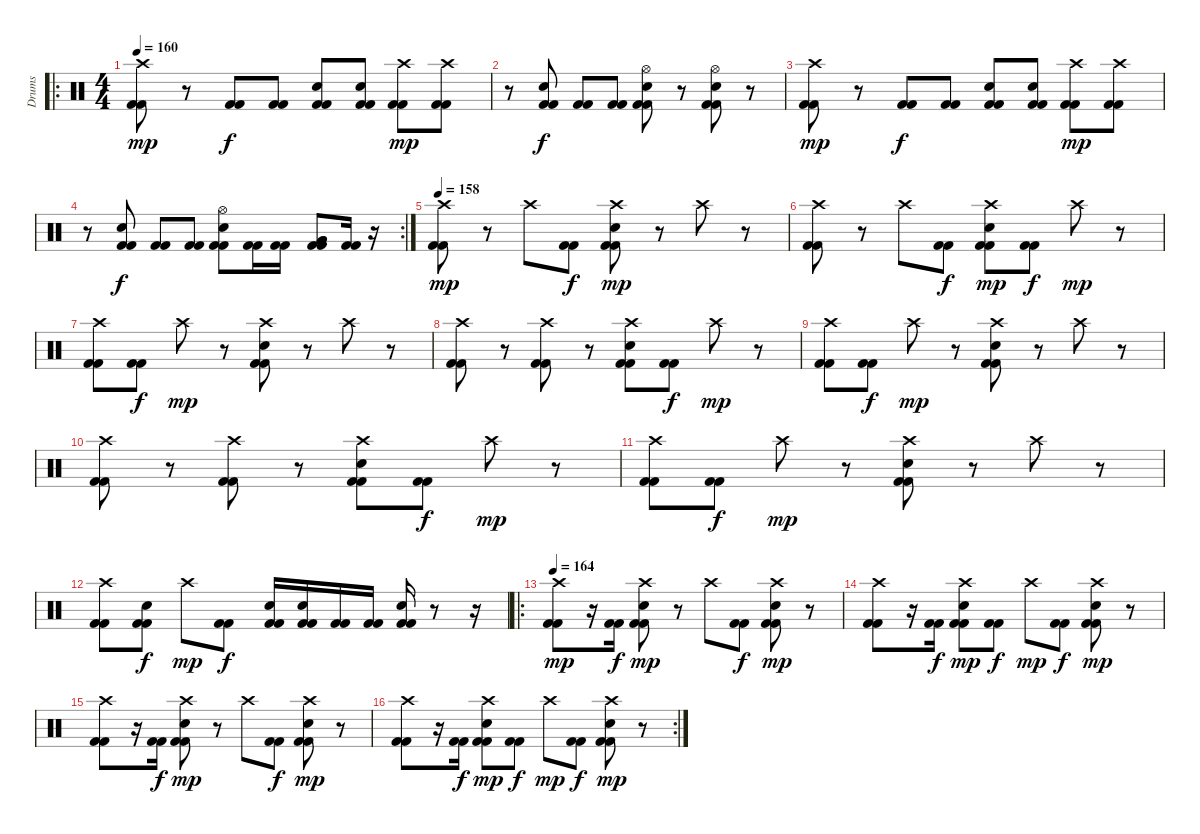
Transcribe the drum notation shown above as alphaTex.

\track ("Drums" "Drums") {instrument percussion}
\staff {score}
\articulation defaults
\ro
\ts (4 4)
\tempo 160
\clef neutral
\ks c
("Crash high (hit)" "Kick (hit) 2" "Kick (hit) 2").8{dy mp} r.8 ("Kick (hit) 2" "Kick (hit) 2").8{dy f} ("Kick (hit) 2" "Kick (hit) 2").8 ("Snare (hit) 2" "Kick (hit) 2" "Kick (hit) 2").8 ("Snare (hit) 2" "Kick (hit) 2" "Kick (hit) 2").8 ("Crash high (hit)" "Kick (hit) 2" "Kick (hit) 2").8{dy mp} ("Crash high (hit)" "Kick (hit) 2" "Kick (hit) 2").8 |
r.8 ("Snare (hit) 2" "Kick (hit) 2" "Kick (hit) 2").8{dy f} ("Kick (hit) 2" "Kick (hit) 2").8 ("Kick (hit) 2" "Kick (hit) 2").8 ("Hi-Hat (open)" "Snare (hit) 2" "Kick (hit) 2" "Kick (hit) 2").8 r.8 ("Hi-Hat (open)" "Snare (hit) 2" "Kick (hit) 2" "Kick (hit) 2").8 r.8 |
("Crash high (hit)" "Kick (hit) 2" "Kick (hit) 2").8{dy mp} r.8 ("Kick (hit) 2" "Kick (hit) 2").8{dy f} ("Kick (hit) 2" "Kick (hit) 2").8 ("Snare (hit) 2" "Kick (hit) 2" "Kick (hit) 2").8 ("Snare (hit) 2" "Kick (hit) 2" "Kick (hit) 2").8 ("Crash high (hit)" "Kick (hit) 2" "Kick (hit) 2").8{dy mp} ("Crash high (hit)" "Kick (hit) 2" "Kick (hit) 2").8 |
\rc 2
r.8 ("Snare (hit) 2" "Kick (hit) 2" "Kick (hit) 2").8{dy f} ("Kick (hit) 2" "Kick (hit) 2").8 ("Kick (hit) 2" "Kick (hit) 2").8 ("Hi-Hat (open)" "Snare (hit) 2" "Kick (hit) 2" "Kick (hit) 2").8 ("Kick (hit) 2" "Kick (hit) 2").16 ("Kick (hit) 2" "Kick (hit) 2").16 ("Very Low Tom (hit)" "Very Low Tom (hit)" "Kick (hit) 2" "Kick (hit) 2").8 ("Kick (hit) 2" "Kick (hit) 2").16 r.16 |
\tempo 158
("Crash high (hit)" "Kick (hit) 2" "Kick (hit) 2").8{dy mp} r.8 "Crash high (hit)".8 ("Kick (hit) 2" "Kick (hit) 2").8{dy f} ("Crash high (hit)" "Snare (hit) 2" "Kick (hit) 2" "Kick (hit) 2").8{dy mp} r.8 "Crash high (hit)".8 r.8 |
("Crash high (hit)" "Kick (hit) 2" "Kick (hit) 2").8 r.8 "Crash high (hit)".8 ("Kick (hit) 2" "Kick (hit) 2").8{dy f} ("Crash high (hit)" "Snare (hit) 2" "Kick (hit) 2" "Kick (hit) 2").8{dy mp} ("Kick (hit) 2" "Kick (hit) 2").8{dy f} "Crash high (hit)".8{dy mp} r.8 |
("Crash high (hit)" "Kick (hit) 2" "Kick (hit) 2").8 ("Kick (hit) 2" "Kick (hit) 2").8{dy f} "Crash high (hit)".8{dy mp} r.8 ("Crash high (hit)" "Snare (hit) 2" "Kick (hit) 2" "Kick (hit) 2").8 r.8 "Crash high (hit)".8 r.8 |
("Crash high (hit)" "Kick (hit) 2" "Kick (hit) 2").8 r.8 ("Crash high (hit)" "Kick (hit) 2" "Kick (hit) 2").8 r.8 ("Crash high (hit)" "Snare (hit) 2" "Kick (hit) 2" "Kick (hit) 2").8 ("Kick (hit) 2" "Kick (hit) 2").8{dy f} "Crash high (hit)".8{dy mp} r.8 |
("Crash high (hit)" "Kick (hit) 2" "Kick (hit) 2").8 ("Kick (hit) 2" "Kick (hit) 2").8{dy f} "Crash high (hit)".8{dy mp} r.8 ("Crash high (hit)" "Snare (hit) 2" "Kick (hit) 2" "Kick (hit) 2").8 r.8 "Crash high (hit)".8 r.8 |
("Crash high (hit)" "Kick (hit) 2" "Kick (hit) 2").8 r.8 ("Crash high (hit)" "Kick (hit) 2" "Kick (hit) 2").8 r.8 ("Crash high (hit)" "Snare (hit) 2" "Kick (hit) 2" "Kick (hit) 2").8 ("Kick (hit) 2" "Kick (hit) 2").8{dy f} "Crash high (hit)".8{dy mp} r.8 |
("Crash high (hit)" "Kick (hit) 2" "Kick (hit) 2").8 ("Kick (hit) 2" "Kick (hit) 2").8{dy f} "Crash high (hit)".8{dy mp} r.8 ("Crash high (hit)" "Snare (hit) 2" "Kick (hit) 2" "Kick (hit) 2").8 r.8 "Crash high (hit)".8 r.8 |
("Crash high (hit)" "Kick (hit) 2" "Kick (hit) 2").8 ("Snare (hit) 2" "Kick (hit) 2" "Kick (hit) 2").8{dy f} "Crash high (hit)".8{dy mp} ("Kick (hit) 2" "Kick (hit) 2").8{dy f} ("Snare (hit) 2" "Kick (hit) 2" "Kick (hit) 2").16 ("Snare (hit) 2" "Kick (hit) 2" "Kick (hit) 2").16 ("Kick (hit) 2" "Kick (hit) 2").16 ("Kick (hit) 2" "Kick (hit) 2").16 ("Snare (hit) 2" "Kick (hit) 2" "Kick (hit) 2").16 r.8 r.16 |
\ro
\tempo 164
("Crash high (hit)" "Kick (hit) 2" "Kick (hit) 2").8{dy mp} r.16 ("Kick (hit) 2" "Kick (hit) 2").16{dy f} ("Crash high (hit)" "Snare (hit) 2" "Kick (hit) 2" "Kick (hit) 2").8{dy mp} r.8 "Crash high (hit)".8 ("Kick (hit) 2" "Kick (hit) 2").8{dy f} ("Crash high (hit)" "Snare (hit) 2" "Kick (hit) 2" "Kick (hit) 2").8{dy mp} r.8 |
("Crash high (hit)" "Kick (hit) 2" "Kick (hit) 2").8 r.16 ("Kick (hit) 2" "Kick (hit) 2").16{dy f} ("Crash high (hit)" "Snare (hit) 2" "Kick (hit) 2" "Kick (hit) 2").8{dy mp} ("Kick (hit) 2" "Kick (hit) 2").8{dy f} "Crash high (hit)".8{dy mp} ("Kick (hit) 2" "Kick (hit) 2").8{dy f} ("Crash high (hit)" "Snare (hit) 2" "Kick (hit) 2" "Kick (hit) 2").8{dy mp} r.8 |
("Crash high (hit)" "Kick (hit) 2" "Kick (hit) 2").8 r.16 ("Kick (hit) 2" "Kick (hit) 2").16{dy f} ("Crash high (hit)" "Snare (hit) 2" "Kick (hit) 2" "Kick (hit) 2").8{dy mp} r.8 "Crash high (hit)".8 ("Kick (hit) 2" "Kick (hit) 2").8{dy f} ("Crash high (hit)" "Snare (hit) 2" "Kick (hit) 2" "Kick (hit) 2").8{dy mp} r.8 |
\rc 2
("Crash high (hit)" "Kick (hit) 2" "Kick (hit) 2").8 r.16 ("Kick (hit) 2" "Kick (hit) 2").16{dy f} ("Crash high (hit)" "Snare (hit) 2" "Kick (hit) 2" "Kick (hit) 2").8{dy mp} ("Kick (hit) 2" "Kick (hit) 2").8{dy f} "Crash high (hit)".8{dy mp} ("Kick (hit) 2" "Kick (hit) 2").8{dy f} ("Crash high (hit)" "Snare (hit) 2" "Kick (hit) 2" "Kick (hit) 2").8{dy mp} r.8
